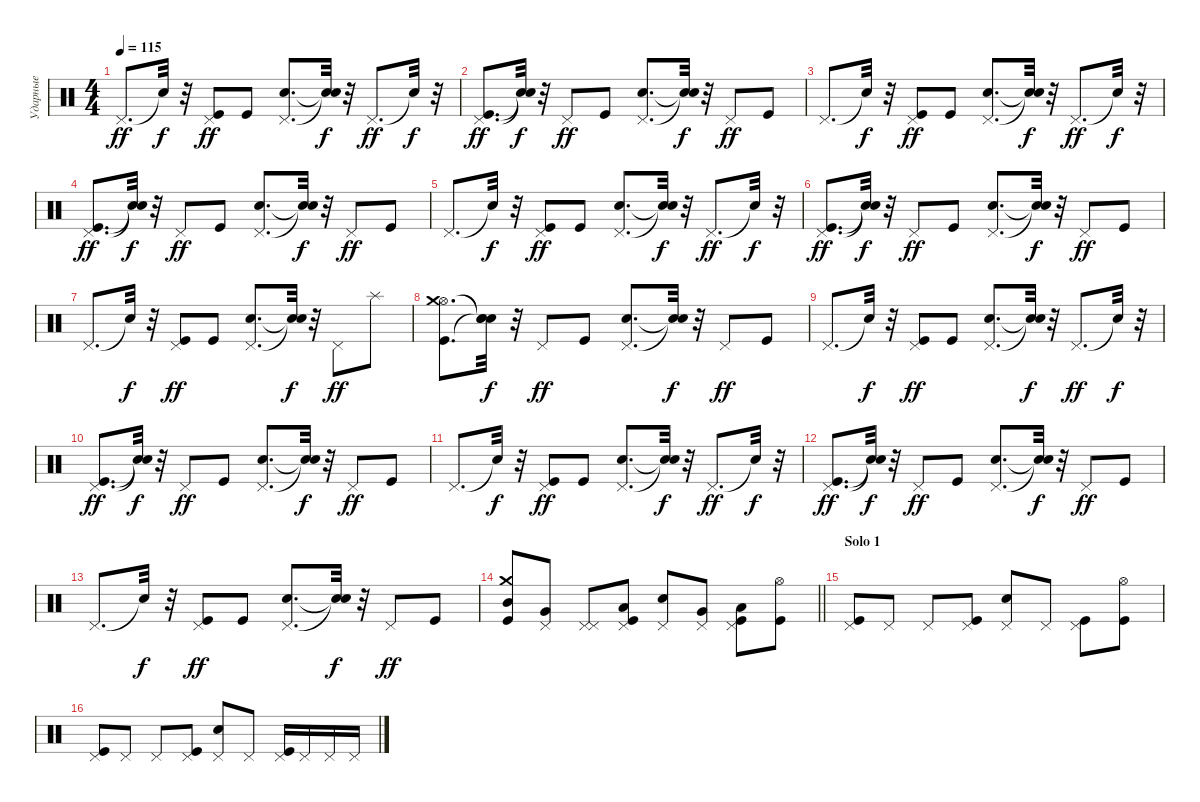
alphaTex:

\track ("Ударные" "Ударные") {instrument percussion}
\staff {score}
\articulation defaults
\ts (4 4)
\tempo 115
\clef neutral
\ks c "Pedal Hi-Hat (hit)".8{d dy ff} "Snare (hit)"{t}.32{dy f}
r.32 ("Kick (hit)" "Pedal Hi-Hat (hit)").8{dy ff} "Kick (hit)".8 ("Electric Snare (hit)" "Pedal Hi-Hat (hit)").8{d} ("Snare (hit)"{t} "Snare (hit)"{t}).32{dy f} r.32 "Pedal Hi-Hat (hit)".8{d dy ff} "Snare (hit)"{t}.32{dy f} r.32 |
("Kick (hit)" "Pedal Hi-Hat (hit)").8{d dy ff} ("Snare (hit)"{t} "Snare (hit)"{t}).32{dy f} r.32 "Pedal Hi-Hat (hit)".8{dy ff} "Kick (hit)".8 ("Electric Snare (hit)" "Pedal Hi-Hat (hit)").8{d} ("Snare (hit)"{t} "Snare (hit)"{t}).32{dy f} r.32 "Pedal Hi-Hat (hit)".8{dy ff} "Kick (hit)".8 |
"Pedal Hi-Hat (hit)".8{d} "Snare (hit)"{t}.32{dy f} r.32 ("Kick (hit)" "Pedal Hi-Hat (hit)").8{dy ff} "Kick (hit)".8 ("Electric Snare (hit)" "Pedal Hi-Hat (hit)").8{d} ("Snare (hit)"{t} "Snare (hit)"{t}).32{dy f} r.32 "Pedal Hi-Hat (hit)".8{d dy ff} "Snare (hit)"{t}.32{dy f} r.32 |
("Kick (hit)" "Pedal Hi-Hat (hit)").8{d dy ff} ("Snare (hit)"{t} "Snare (hit)"{t}).32{dy f} r.32 "Pedal Hi-Hat (hit)".8{dy ff} "Kick (hit)".8 ("Electric Snare (hit)" "Pedal Hi-Hat (hit)").8{d} ("Snare (hit)"{t} "Snare (hit)"{t}).32{dy f} r.32 "Pedal Hi-Hat (hit)".8{dy ff} "Kick (hit)".8 |
"Pedal Hi-Hat (hit)".8{d} "Snare (hit)"{t}.32{dy f} r.32 ("Kick (hit)" "Pedal Hi-Hat (hit)").8{dy ff} "Kick (hit)".8 ("Electric Snare (hit)" "Pedal Hi-Hat (hit)").8{d} ("Snare (hit)"{t} "Snare (hit)"{t}).32{dy f} r.32 "Pedal Hi-Hat (hit)".8{d dy ff} "Snare (hit)"{t}.32{dy f} r.32 |
("Kick (hit)" "Pedal Hi-Hat (hit)").8{d dy ff} ("Snare (hit)"{t} "Snare (hit)"{t}).32{dy f} r.32 "Pedal Hi-Hat (hit)".8{dy ff} "Kick (hit)".8 ("Electric Snare (hit)" "Pedal Hi-Hat (hit)").8{d} ("Snare (hit)"{t} "Snare (hit)"{t}).32{dy f} r.32 "Pedal Hi-Hat (hit)".8{dy ff} "Kick (hit)".8 |
"Pedal Hi-Hat (hit)".8{d} "Snare (hit)"{t}.32{dy f} r.32 ("Kick (hit)" "Pedal Hi-Hat (hit)").8{dy ff} "Kick (hit)".8 ("Electric Snare (hit)" "Pedal Hi-Hat (hit)").8{d} ("Snare (hit)"{t} "Snare (hit)"{t}).32{dy f} r.32 "Pedal Hi-Hat (hit)".8{dy ff} "Splash (hit)".8 |
("Kick (hit)" "Hi-Hat (open)" "Crash medium (hit)").8{d} ("Snare (hit)"{t} "Snare (hit)"{t} "Snare (hit)"{t}).32{dy f} r.32 "Pedal Hi-Hat (hit)".8{dy ff} "Kick (hit)".8 ("Electric Snare (hit)" "Pedal Hi-Hat (hit)").8{d} ("Snare (hit)"{t} "Snare (hit)"{t}).32{dy f} r.32 "Pedal Hi-Hat (hit)".8{dy ff} "Kick (hit)".8 |
"Pedal Hi-Hat (hit)".8{d} "Snare (hit)"{t}.32{dy f} r.32 ("Kick (hit)" "Pedal Hi-Hat (hit)").8{dy ff} "Kick (hit)".8 ("Electric Snare (hit)" "Pedal Hi-Hat (hit)").8{d} ("Snare (hit)"{t} "Snare (hit)"{t}).32{dy f} r.32 "Pedal Hi-Hat (hit)".8{d dy ff} "Snare (hit)"{t}.32{dy f} r.32 |
("Kick (hit)" "Pedal Hi-Hat (hit)").8{d dy ff} ("Snare (hit)"{t} "Snare (hit)"{t}).32{dy f} r.32 "Pedal Hi-Hat (hit)".8{dy ff} "Kick (hit)".8 ("Electric Snare (hit)" "Pedal Hi-Hat (hit)").8{d} ("Snare (hit)"{t} "Snare (hit)"{t}).32{dy f} r.32 "Pedal Hi-Hat (hit)".8{dy ff} "Kick (hit)".8 |
"Pedal Hi-Hat (hit)".8{d} "Snare (hit)"{t}.32{dy f} r.32 ("Kick (hit)" "Pedal Hi-Hat (hit)").8{dy ff} "Kick (hit)".8 ("Electric Snare (hit)" "Pedal Hi-Hat (hit)").8{d} ("Snare (hit)"{t} "Snare (hit)"{t}).32{dy f} r.32 "Pedal Hi-Hat (hit)".8{d dy ff} "Snare (hit)"{t}.32{dy f} r.32 |
("Kick (hit)" "Pedal Hi-Hat (hit)").8{d dy ff} ("Snare (hit)"{t} "Snare (hit)"{t}).32{dy f} r.32 "Pedal Hi-Hat (hit)".8{dy ff} "Kick (hit)".8 ("Electric Snare (hit)" "Pedal Hi-Hat (hit)").8{d} ("Snare (hit)"{t} "Snare (hit)"{t}).32{dy f} r.32 "Pedal Hi-Hat (hit)".8{dy ff} "Kick (hit)".8 |
"Pedal Hi-Hat (hit)".8{d} "Snare (hit)"{t}.32{dy f} r.32 ("Kick (hit)" "Pedal Hi-Hat (hit)").8{dy ff} "Kick (hit)".8 ("Electric Snare (hit)" "Pedal Hi-Hat (hit)").8{d} ("Snare (hit)"{t} "Snare (hit)"{t}).32{dy f} r.32 "Pedal Hi-Hat (hit)".8{dy ff} "Kick (hit)".8 |
\barLineRight lightlight
("Kick (hit)" "Mid Tom (hit)" "Crash medium (hit)").8 ("Very Low Tom (hit)" "Pedal Hi-Hat (hit)").8 ("Pedal Hi-Hat (hit)" "Pedal Hi-Hat (hit)").8 ("Kick (hit)" "Low Floor Tom (hit)" "Pedal Hi-Hat (hit)").8 ("Electric Snare (hit)" "Pedal Hi-Hat (hit)").8 ("Very Low Tom (hit)" "Pedal Hi-Hat (hit)").8 ("Kick (hit)" "Low Floor Tom (hit)" "Pedal Hi-Hat (hit)").8 ("Kick (hit)" "Hi-Hat (open)").8 |
\section ("" "Solo 1")
("Kick (hit)" "Pedal Hi-Hat (hit)").8 "Pedal Hi-Hat (hit)".8 "Pedal Hi-Hat (hit)".8 ("Kick (hit)" "Pedal Hi-Hat (hit)").8 ("Electric Snare (hit)" "Pedal Hi-Hat (hit)").8 "Pedal Hi-Hat (hit)".8 ("Kick (hit)" "Pedal Hi-Hat (hit)").8 ("Kick (hit)" "Hi-Hat (open)").8 |
("Kick (hit)" "Pedal Hi-Hat (hit)").8 "Pedal Hi-Hat (hit)".8 "Pedal Hi-Hat (hit)".8 ("Kick (hit)" "Pedal Hi-Hat (hit)").8 ("Electric Snare (hit)" "Pedal Hi-Hat (hit)").8 "Pedal Hi-Hat (hit)".8 ("Kick (hit)" "Pedal Hi-Hat (hit)").16 "Pedal Hi-Hat (hit)".16 "Pedal Hi-Hat (hit)".16 "Pedal Hi-Hat (hit)".16
